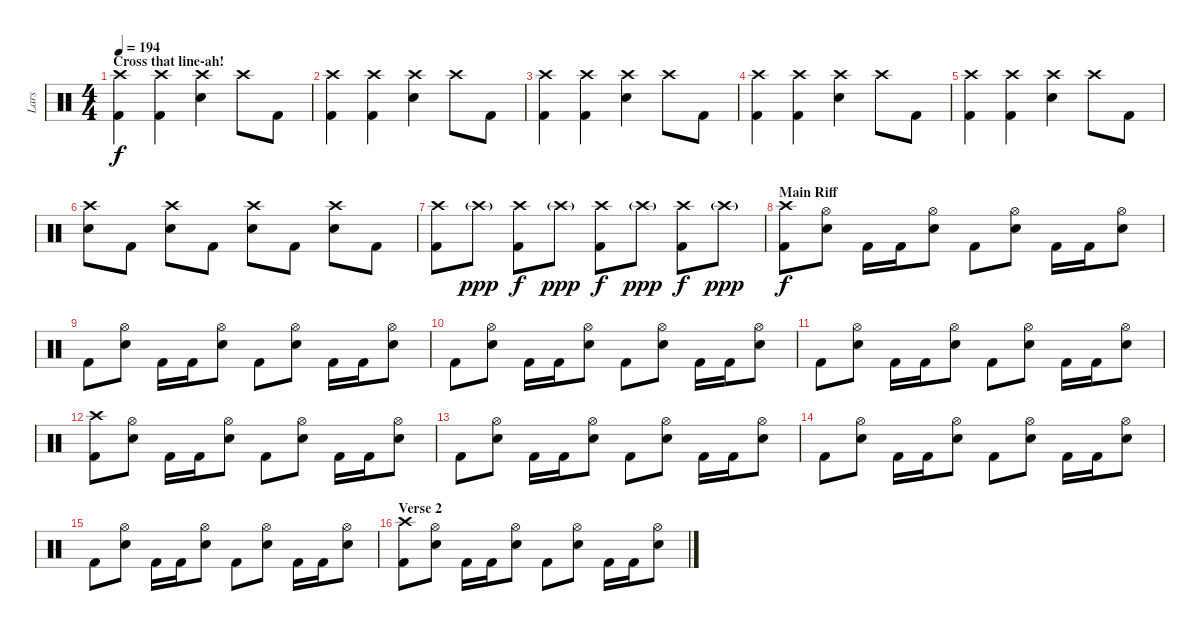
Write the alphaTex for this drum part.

\track ("Lars" "Lars") {instrument percussion}
\staff {score}
\articulation defaults
\ts (4 4)
\section ("" "Cross that line-ah!")
\tempo 194
\clef neutral
\ks c
("Crash high (hit)" "Kick (hit) 2").4{dy f} ("Crash high (hit)" "Kick (hit) 2").4 ("Crash high (hit)" "Electric Snare (hit)").4 "Crash high (hit)".8 "Kick (hit) 2".8 |
("Crash high (hit)" "Kick (hit) 2").4 ("Crash high (hit)" "Kick (hit) 2").4 ("Crash high (hit)" "Electric Snare (hit)").4 "Crash high (hit)".8 "Kick (hit) 2".8 |
("Crash high (hit)" "Kick (hit) 2").4 ("Crash high (hit)" "Kick (hit) 2").4 ("Crash high (hit)" "Electric Snare (hit)").4 "Crash high (hit)".8 "Kick (hit) 2".8 |
("Crash high (hit)" "Kick (hit) 2").4 ("Crash high (hit)" "Kick (hit) 2").4 ("Crash high (hit)" "Electric Snare (hit)").4 "Crash high (hit)".8 "Kick (hit) 2".8 |
("Crash high (hit)" "Kick (hit) 2").4 ("Crash high (hit)" "Kick (hit) 2").4 ("Crash high (hit)" "Electric Snare (hit)").4 "Crash high (hit)".8 "Kick (hit) 2".8 |
("Electric Snare (hit)" "Crash high (hit)").8 "Kick (hit) 2".8 ("Electric Snare (hit)" "Crash high (hit)").8 "Kick (hit) 2".8 ("Electric Snare (hit)" "Crash high (hit)").8 "Kick (hit) 2".8 ("Electric Snare (hit)" "Crash high (hit)").8 "Kick (hit) 2".8 |
("Kick (hit) 2" "Crash high (hit)").8 "Crash high (hit)"{g}.8{dy ppp} ("Kick (hit) 2" "Crash high (hit)").8{dy f} "Crash high (hit)"{g}.8{dy ppp} ("Kick (hit) 2" "Crash high (hit)").8{dy f} "Crash high (hit)"{g}.8{dy ppp} ("Kick (hit) 2" "Crash high (hit)").8{dy f} "Crash high (hit)"{g}.8{dy ppp} |
\section ("" "Main Riff")
("Kick (hit) 2" "Crash high (hit)").8{dy f} ("Electric Snare (hit)" "Hi-Hat (open)").8 "Kick (hit) 2".16 "Kick (hit) 2".16 ("Electric Snare (hit)" "Hi-Hat (open)").8 "Kick (hit) 2".8 ("Electric Snare (hit)" "Hi-Hat (open)").8 "Kick (hit) 2".16 "Kick (hit) 2".16 ("Electric Snare (hit)" "Hi-Hat (open)").8 |
"Kick (hit) 2".8 ("Electric Snare (hit)" "Hi-Hat (open)").8 "Kick (hit) 2".16 "Kick (hit) 2".16 ("Electric Snare (hit)" "Hi-Hat (open)").8 "Kick (hit) 2".8 ("Electric Snare (hit)" "Hi-Hat (open)").8 "Kick (hit) 2".16 "Kick (hit) 2".16 ("Electric Snare (hit)" "Hi-Hat (open)").8 |
"Kick (hit) 2".8 ("Electric Snare (hit)" "Hi-Hat (open)").8 "Kick (hit) 2".16 "Kick (hit) 2".16 ("Electric Snare (hit)" "Hi-Hat (open)").8 "Kick (hit) 2".8 ("Electric Snare (hit)" "Hi-Hat (open)").8 "Kick (hit) 2".16 "Kick (hit) 2".16 ("Electric Snare (hit)" "Hi-Hat (open)").8 |
"Kick (hit) 2".8 ("Electric Snare (hit)" "Hi-Hat (open)").8 "Kick (hit) 2".16 "Kick (hit) 2".16 ("Electric Snare (hit)" "Hi-Hat (open)").8 "Kick (hit) 2".8 ("Electric Snare (hit)" "Hi-Hat (open)").8 "Kick (hit) 2".16 "Kick (hit) 2".16 ("Electric Snare (hit)" "Hi-Hat (open)").8 |
("Kick (hit) 2" "Crash high (hit)").8 ("Electric Snare (hit)" "Hi-Hat (open)").8 "Kick (hit) 2".16 "Kick (hit) 2".16 ("Electric Snare (hit)" "Hi-Hat (open)").8 "Kick (hit) 2".8 ("Electric Snare (hit)" "Hi-Hat (open)").8 "Kick (hit) 2".16 "Kick (hit) 2".16 ("Electric Snare (hit)" "Hi-Hat (open)").8 |
"Kick (hit) 2".8 ("Electric Snare (hit)" "Hi-Hat (open)").8 "Kick (hit) 2".16 "Kick (hit) 2".16 ("Electric Snare (hit)" "Hi-Hat (open)").8 "Kick (hit) 2".8 ("Electric Snare (hit)" "Hi-Hat (open)").8 "Kick (hit) 2".16 "Kick (hit) 2".16 ("Electric Snare (hit)" "Hi-Hat (open)").8 |
"Kick (hit) 2".8 ("Electric Snare (hit)" "Hi-Hat (open)").8 "Kick (hit) 2".16 "Kick (hit) 2".16 ("Electric Snare (hit)" "Hi-Hat (open)").8 "Kick (hit) 2".8 ("Electric Snare (hit)" "Hi-Hat (open)").8 "Kick (hit) 2".16 "Kick (hit) 2".16 ("Electric Snare (hit)" "Hi-Hat (open)").8 |
"Kick (hit) 2".8 ("Electric Snare (hit)" "Hi-Hat (open)").8 "Kick (hit) 2".16 "Kick (hit) 2".16 ("Electric Snare (hit)" "Hi-Hat (open)").8 "Kick (hit) 2".8 ("Electric Snare (hit)" "Hi-Hat (open)").8 "Kick (hit) 2".16 "Kick (hit) 2".16 ("Electric Snare (hit)" "Hi-Hat (open)").8 |
\section ("" "Verse 2")
("Kick (hit) 2" "Crash high (hit)").8 ("Electric Snare (hit)" "Hi-Hat (open)").8 "Kick (hit) 2".16 "Kick (hit) 2".16 ("Electric Snare (hit)" "Hi-Hat (open)").8 "Kick (hit) 2".8 ("Electric Snare (hit)" "Hi-Hat (open)").8 "Kick (hit) 2".16 "Kick (hit) 2".16 ("Electric Snare (hit)" "Hi-Hat (open)").8
